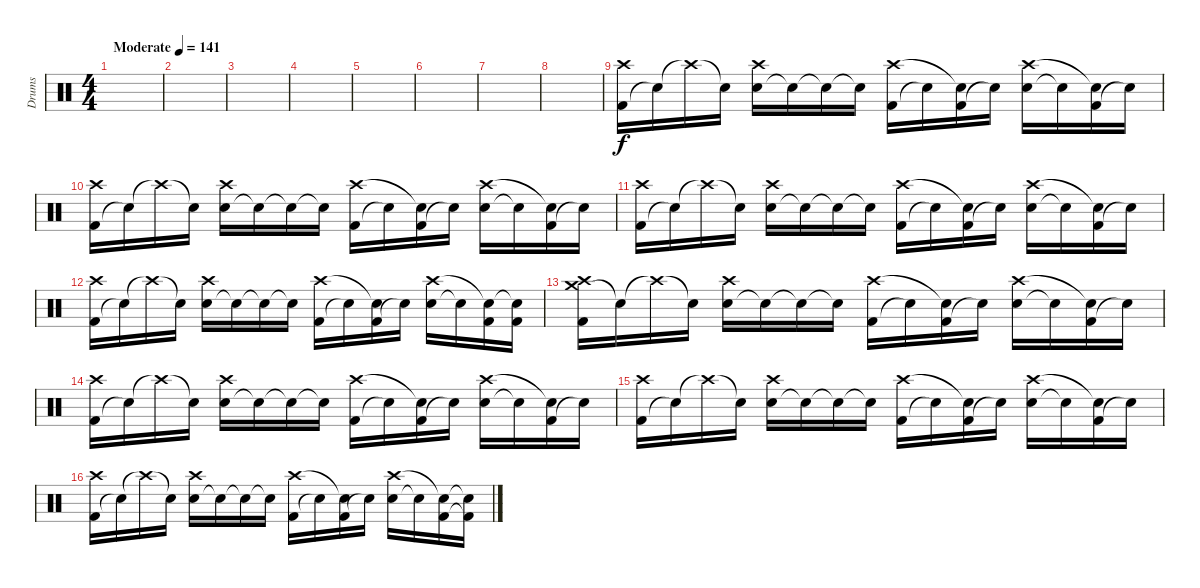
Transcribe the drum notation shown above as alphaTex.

\track ("Drums" "Drums") {instrument percussion}
\staff {score}
\articulation defaults
\ts (4 4)
\tempo (141 "Moderate")
\clef neutral
\ks c
|
|
|
|
|
|
|
|
("Kick (hit) 2" "Crash high (hit)").16 "Snare (hit)"{t}.16 "Crash high (hit)"{t}.16 "Snare (hit)"{t}.16 ("Snare (hit) 2" "Crash high (hit)").16 "Snare (hit)"{t}.16 "Snare (hit)"{t}.16 "Snare (hit)"{t}.16 ("Kick (hit) 2" "Crash high (hit)").16 "Snare (hit)"{t}.16 ("Kick (hit) 2" "Snare (hit)"{t}).16 "Snare (hit)"{t}.16 ("Snare (hit) 2" "Crash high (hit)").16 "Snare (hit)"{t}.16 ("Kick (hit) 2" "Snare (hit)"{t}).16 "Snare (hit)"{t}.16 |
("Kick (hit) 2" "Crash high (hit)").16 "Snare (hit)"{t}.16 "Crash high (hit)"{t}.16 "Snare (hit)"{t}.16 ("Snare (hit) 2" "Crash high (hit)").16 "Snare (hit)"{t}.16 "Snare (hit)"{t}.16 "Snare (hit)"{t}.16 ("Kick (hit) 2" "Crash high (hit)").16 "Snare (hit)"{t}.16 ("Kick (hit) 2" "Snare (hit)"{t}).16 "Snare (hit)"{t}.16 ("Snare (hit) 2" "Crash high (hit)").16 "Snare (hit)"{t}.16 ("Kick (hit) 2" "Snare (hit)"{t}).16 "Snare (hit)"{t}.16 |
("Kick (hit) 2" "Crash high (hit)").16 "Snare (hit)"{t}.16 "Crash high (hit)"{t}.16 "Snare (hit)"{t}.16 ("Snare (hit) 2" "Crash high (hit)").16 "Snare (hit)"{t}.16 "Snare (hit)"{t}.16 "Snare (hit)"{t}.16 ("Kick (hit) 2" "Crash high (hit)").16 "Snare (hit)"{t}.16 ("Kick (hit) 2" "Snare (hit)"{t}).16 "Snare (hit)"{t}.16 ("Snare (hit) 2" "Crash high (hit)").16 "Snare (hit)"{t}.16 ("Kick (hit) 2" "Snare (hit)"{t}).16 "Snare (hit)"{t}.16 |
("Kick (hit) 2" "Crash high (hit)").16 "Snare (hit)"{t}.16 "Crash high (hit)"{t}.16 "Snare (hit)"{t}.16 ("Snare (hit) 2" "Crash high (hit)").16 "Snare (hit)"{t}.16 "Snare (hit)"{t}.16 "Snare (hit)"{t}.16 ("Kick (hit) 2" "Crash high (hit)").16 "Snare (hit)"{t}.16 ("Kick (hit) 2" "Snare (hit)"{t}).16 "Snare (hit)"{t}.16 ("Snare (hit) 2" "Crash high (hit)").16 "Snare (hit)"{t}.16 ("Kick (hit) 2" "Snare (hit)"{t}).16 ("Kick (hit) 2" "Snare (hit)"{t}).16 |
("Crash medium (hit)" "Kick (hit) 2" "Crash high (hit)").16 "Snare (hit)"{t}.16 "Crash high (hit)"{t}.16 "Snare (hit)"{t}.16 ("Snare (hit) 2" "Crash high (hit)").16 "Snare (hit)"{t}.16 "Snare (hit)"{t}.16 "Snare (hit)"{t}.16 ("Kick (hit) 2" "Crash high (hit)").16 "Snare (hit)"{t}.16 ("Kick (hit) 2" "Snare (hit)"{t}).16 "Snare (hit)"{t}.16 ("Snare (hit) 2" "Crash high (hit)").16 "Snare (hit)"{t}.16 ("Kick (hit) 2" "Snare (hit)"{t}).16 "Snare (hit)"{t}.16 |
("Kick (hit) 2" "Crash high (hit)").16 "Snare (hit)"{t}.16 "Crash high (hit)"{t}.16 "Snare (hit)"{t}.16 ("Snare (hit) 2" "Crash high (hit)").16 "Snare (hit)"{t}.16 "Snare (hit)"{t}.16 "Snare (hit)"{t}.16 ("Kick (hit) 2" "Crash high (hit)").16 "Snare (hit)"{t}.16 ("Kick (hit) 2" "Snare (hit)"{t}).16 "Snare (hit)"{t}.16 ("Snare (hit) 2" "Crash high (hit)").16 "Snare (hit)"{t}.16 ("Kick (hit) 2" "Snare (hit)"{t}).16 "Snare (hit)"{t}.16 |
("Kick (hit) 2" "Crash high (hit)").16 "Snare (hit)"{t}.16 "Crash high (hit)"{t}.16 "Snare (hit)"{t}.16 ("Snare (hit) 2" "Crash high (hit)").16 "Snare (hit)"{t}.16 "Snare (hit)"{t}.16 "Snare (hit)"{t}.16 ("Kick (hit) 2" "Crash high (hit)").16 "Snare (hit)"{t}.16 ("Kick (hit) 2" "Snare (hit)"{t}).16 "Snare (hit)"{t}.16 ("Snare (hit) 2" "Crash high (hit)").16 "Snare (hit)"{t}.16 ("Kick (hit) 2" "Snare (hit)"{t}).16 "Snare (hit)"{t}.16 |
("Kick (hit) 2" "Crash high (hit)").16 "Snare (hit)"{t}.16 "Crash high (hit)"{t}.16 "Snare (hit)"{t}.16 ("Snare (hit) 2" "Crash high (hit)").16 "Snare (hit)"{t}.16 "Snare (hit)"{t}.16 "Snare (hit)"{t}.16 ("Kick (hit) 2" "Crash high (hit)").16 "Snare (hit)"{t}.16 ("Kick (hit) 2" "Snare (hit)"{t}).16 "Snare (hit)"{t}.16 ("Snare (hit) 2" "Crash high (hit)").16 "Snare (hit)"{t}.16 ("Kick (hit) 2" "Snare (hit)"{t}).16 ("Kick (hit) 2"{t} "Snare (hit)"{t}).16
